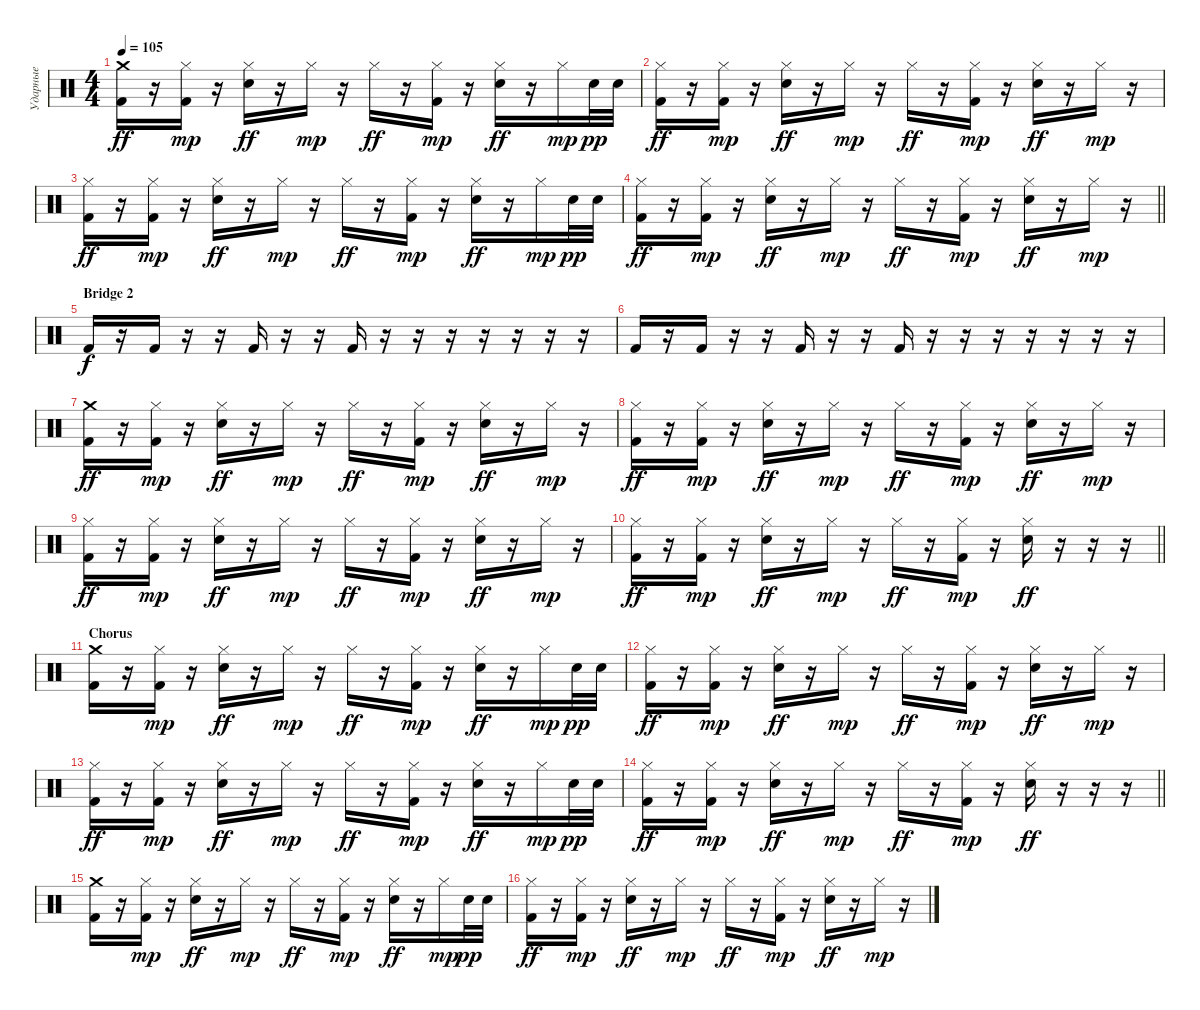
\track ("Ударные" "Ударные") {instrument percussion}
\staff {score}
\articulation defaults
\ts (4 4)
\tempo 105
\clef neutral
\ks c
("Crash medium (hit)" "Kick (hit) 2").16{dy ff} r.16 ("Hi-Hat (closed)" "Kick (hit) 2").16{dy mp} r.16 ("Hi-Hat (closed)" "Electric Snare (hit)").16{dy ff} r.16 "Hi-Hat (closed)".16{dy mp} r.16 "Hi-Hat (closed)".16{dy ff} r.16 ("Hi-Hat (closed)" "Kick (hit) 2").16{dy mp} r.16 ("Hi-Hat (closed)" "Electric Snare (hit)").16{dy ff} r.16 "Hi-Hat (closed)".16{dy mp} "Electric Snare (hit)".32{dy pp} "Electric Snare (hit)".32 |
("Hi-Hat (closed)" "Kick (hit) 2").16{dy ff} r.16 ("Hi-Hat (closed)" "Kick (hit) 2").16{dy mp} r.16 ("Hi-Hat (closed)" "Electric Snare (hit)").16{dy ff} r.16 "Hi-Hat (closed)".16{dy mp} r.16 "Hi-Hat (closed)".16{dy ff} r.16 ("Hi-Hat (closed)" "Kick (hit) 2").16{dy mp} r.16 ("Hi-Hat (closed)" "Electric Snare (hit)").16{dy ff} r.16 "Hi-Hat (closed)".16{dy mp} r.16 |
("Hi-Hat (closed)" "Kick (hit) 2").16{dy ff} r.16 ("Hi-Hat (closed)" "Kick (hit) 2").16{dy mp} r.16 ("Hi-Hat (closed)" "Electric Snare (hit)").16{dy ff} r.16 "Hi-Hat (closed)".16{dy mp} r.16 "Hi-Hat (closed)".16{dy ff} r.16 ("Hi-Hat (closed)" "Kick (hit) 2").16{dy mp} r.16 ("Hi-Hat (closed)" "Electric Snare (hit)").16{dy ff} r.16 "Hi-Hat (closed)".16{dy mp} "Electric Snare (hit)".32{dy pp} "Electric Snare (hit)".32 |
\barLineRight lightlight
("Hi-Hat (closed)" "Kick (hit) 2").16{dy ff} r.16 ("Hi-Hat (closed)" "Kick (hit) 2").16{dy mp} r.16 ("Hi-Hat (closed)" "Electric Snare (hit)").16{dy ff} r.16 "Hi-Hat (closed)".16{dy mp} r.16 "Hi-Hat (closed)".16{dy ff} r.16 ("Hi-Hat (closed)" "Kick (hit) 2").16{dy mp} r.16 ("Hi-Hat (closed)" "Electric Snare (hit)").16{dy ff} r.16 "Hi-Hat (closed)".16{dy mp} r.16 |
\section ("" "Bridge 2")
"Kick (hit) 2".16{dy f} r.16 "Kick (hit) 2".16 r.16 r.16 "Kick (hit) 2".16 r.16 r.16 "Kick (hit) 2".16 r.16 r.16 r.16 r.16 r.16 r.16 r.16 |
"Kick (hit) 2".16 r.16 "Kick (hit) 2".16 r.16 r.16 "Kick (hit) 2".16 r.16 r.16 "Kick (hit) 2".16 r.16 r.16 r.16 r.16 r.16 r.16 r.16 |
("Crash medium (hit)" "Kick (hit) 2").16{dy ff} r.16 ("Hi-Hat (closed)" "Kick (hit) 2").16{dy mp} r.16 ("Hi-Hat (closed)" "Electric Snare (hit)").16{dy ff} r.16 "Hi-Hat (closed)".16{dy mp} r.16 "Hi-Hat (closed)".16{dy ff} r.16 ("Hi-Hat (closed)" "Kick (hit) 2").16{dy mp} r.16 ("Hi-Hat (closed)" "Electric Snare (hit)").16{dy ff} r.16 "Hi-Hat (closed)".16{dy mp} r.16 |
("Hi-Hat (closed)" "Kick (hit) 2").16{dy ff} r.16 ("Hi-Hat (closed)" "Kick (hit) 2").16{dy mp} r.16 ("Hi-Hat (closed)" "Electric Snare (hit)").16{dy ff} r.16 "Hi-Hat (closed)".16{dy mp} r.16 "Hi-Hat (closed)".16{dy ff} r.16 ("Hi-Hat (closed)" "Kick (hit) 2").16{dy mp} r.16 ("Hi-Hat (closed)" "Electric Snare (hit)").16{dy ff} r.16 "Hi-Hat (closed)".16{dy mp} r.16 |
("Hi-Hat (closed)" "Kick (hit) 2").16{dy ff} r.16 ("Hi-Hat (closed)" "Kick (hit) 2").16{dy mp} r.16 ("Hi-Hat (closed)" "Electric Snare (hit)").16{dy ff} r.16 "Hi-Hat (closed)".16{dy mp} r.16 "Hi-Hat (closed)".16{dy ff} r.16 ("Hi-Hat (closed)" "Kick (hit) 2").16{dy mp} r.16 ("Hi-Hat (closed)" "Electric Snare (hit)").16{dy ff} r.16 "Hi-Hat (closed)".16{dy mp} r.16 |
\barLineRight lightlight
("Hi-Hat (closed)" "Kick (hit) 2").16{dy ff} r.16 ("Hi-Hat (closed)" "Kick (hit) 2").16{dy mp} r.16 ("Hi-Hat (closed)" "Electric Snare (hit)").16{dy ff} r.16 "Hi-Hat (closed)".16{dy mp} r.16 "Hi-Hat (closed)".16{dy ff} r.16 ("Hi-Hat (closed)" "Kick (hit) 2").16{dy mp} r.16 ("Hi-Hat (closed)" "Electric Snare (hit)").16{dy ff} r.16 r.16 r.16 |
\section ("" "Chorus")
("Crash medium (hit)" "Kick (hit) 2").16 r.16 ("Hi-Hat (closed)" "Kick (hit) 2").16{dy mp} r.16 ("Hi-Hat (closed)" "Electric Snare (hit)").16{dy ff} r.16 "Hi-Hat (closed)".16{dy mp} r.16 "Hi-Hat (closed)".16{dy ff} r.16 ("Hi-Hat (closed)" "Kick (hit) 2").16{dy mp} r.16 ("Hi-Hat (closed)" "Electric Snare (hit)").16{dy ff} r.16 "Hi-Hat (closed)".16{dy mp} "Electric Snare (hit)".32{dy pp} "Electric Snare (hit)".32 |
("Hi-Hat (closed)" "Kick (hit) 2").16{dy ff} r.16 ("Hi-Hat (closed)" "Kick (hit) 2").16{dy mp} r.16 ("Hi-Hat (closed)" "Electric Snare (hit)").16{dy ff} r.16 "Hi-Hat (closed)".16{dy mp} r.16 "Hi-Hat (closed)".16{dy ff} r.16 ("Hi-Hat (closed)" "Kick (hit) 2").16{dy mp} r.16 ("Hi-Hat (closed)" "Electric Snare (hit)").16{dy ff} r.16 "Hi-Hat (closed)".16{dy mp} r.16 |
("Hi-Hat (closed)" "Kick (hit) 2").16{dy ff} r.16 ("Hi-Hat (closed)" "Kick (hit) 2").16{dy mp} r.16 ("Hi-Hat (closed)" "Electric Snare (hit)").16{dy ff} r.16 "Hi-Hat (closed)".16{dy mp} r.16 "Hi-Hat (closed)".16{dy ff} r.16 ("Hi-Hat (closed)" "Kick (hit) 2").16{dy mp} r.16 ("Hi-Hat (closed)" "Electric Snare (hit)").16{dy ff} r.16 "Hi-Hat (closed)".16{dy mp} "Electric Snare (hit)".32{dy pp} "Electric Snare (hit)".32 |
\barLineRight lightlight
("Hi-Hat (closed)" "Kick (hit) 2").16{dy ff} r.16 ("Hi-Hat (closed)" "Kick (hit) 2").16{dy mp} r.16 ("Hi-Hat (closed)" "Electric Snare (hit)").16{dy ff} r.16 "Hi-Hat (closed)".16{dy mp} r.16 "Hi-Hat (closed)".16{dy ff} r.16 ("Hi-Hat (closed)" "Kick (hit) 2").16{dy mp} r.16 ("Hi-Hat (closed)" "Electric Snare (hit)").16{dy ff} r.16 r.16 r.16 |
("Crash medium (hit)" "Kick (hit) 2").16 r.16 ("Hi-Hat (closed)" "Kick (hit) 2").16{dy mp} r.16 ("Hi-Hat (closed)" "Electric Snare (hit)").16{dy ff} r.16 "Hi-Hat (closed)".16{dy mp} r.16 "Hi-Hat (closed)".16{dy ff} r.16 ("Hi-Hat (closed)" "Kick (hit) 2").16{dy mp} r.16 ("Hi-Hat (closed)" "Electric Snare (hit)").16{dy ff} r.16 "Hi-Hat (closed)".16{dy mp} "Electric Snare (hit)".32{dy pp} "Electric Snare (hit)".32 |
("Hi-Hat (closed)" "Kick (hit) 2").16{dy ff} r.16 ("Hi-Hat (closed)" "Kick (hit) 2").16{dy mp} r.16 ("Hi-Hat (closed)" "Electric Snare (hit)").16{dy ff} r.16 "Hi-Hat (closed)".16{dy mp} r.16 "Hi-Hat (closed)".16{dy ff} r.16 ("Hi-Hat (closed)" "Kick (hit) 2").16{dy mp} r.16 ("Hi-Hat (closed)" "Electric Snare (hit)").16{dy ff} r.16 "Hi-Hat (closed)".16{dy mp} r.16
